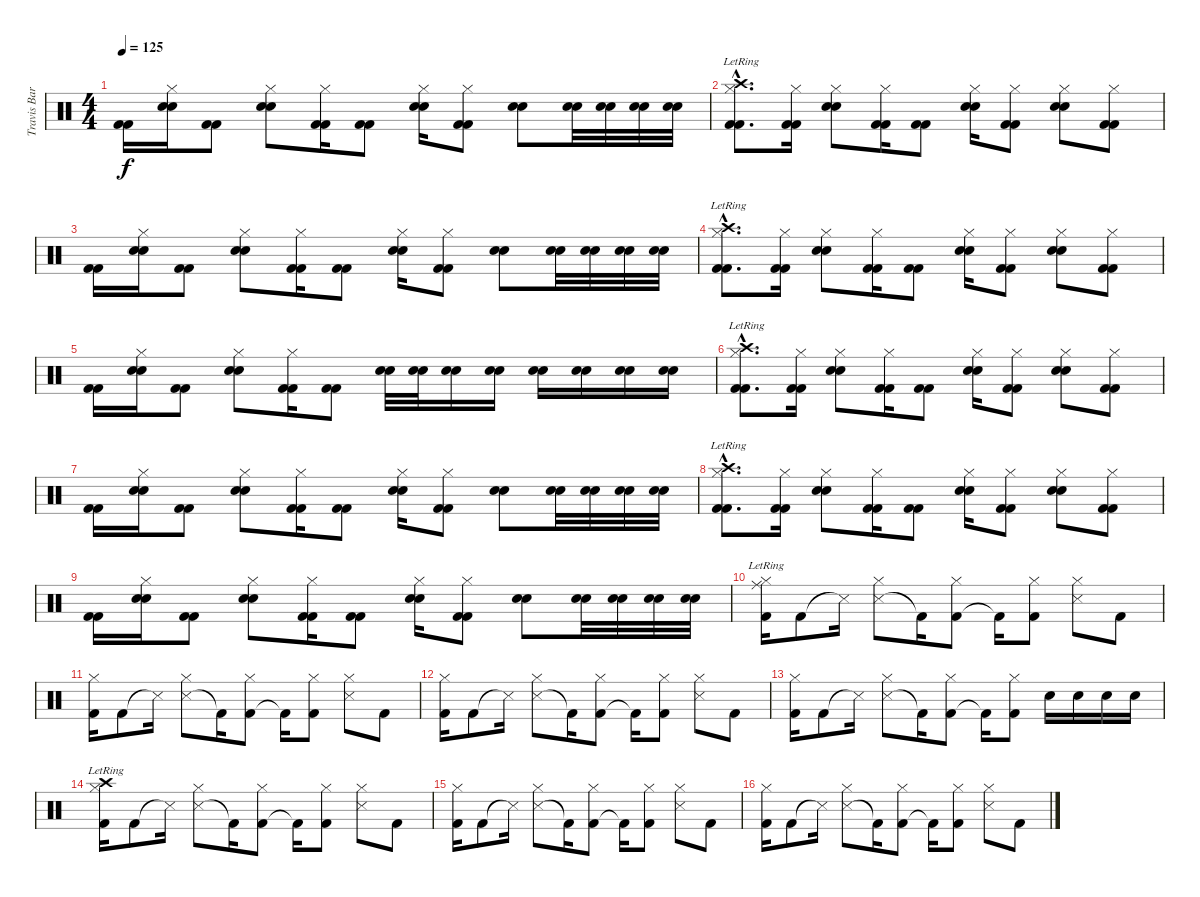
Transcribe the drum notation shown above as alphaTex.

\track ("Travis Barker - Drums" "Travis Bar") {instrument percussion}
\staff {score}
\articulation defaults
\ts (4 4)
\tempo 125
\clef neutral
\ks c
("Kick (hit) 2" "Kick (hit) 2").16{dy f} ("Snare (hit) 2" "Snare (hit) 2" "Hi-Hat (closed)").16 ("Kick (hit) 2" "Kick (hit) 2").8 ("Snare (hit) 2" "Snare (hit) 2" "Hi-Hat (closed)").8 ("Kick (hit) 2" "Kick (hit) 2" "Hi-Hat (closed)").16 ("Kick (hit) 2" "Kick (hit) 2").8 ("Snare (hit) 2" "Snare (hit) 2" "Hi-Hat (closed)").16 ("Kick (hit) 2" "Kick (hit) 2" "Hi-Hat (closed)").8 ("Snare (hit) 2" "Snare (hit) 2").8 ("Snare (hit) 2" "Snare (hit) 2").32 ("Snare (hit) 2" "Snare (hit) 2").32 ("Snare (hit) 2" "Snare (hit) 2").32 ("Snare (hit) 2" "Snare (hit) 2").32 |
("Kick (hit) 2"{hac} "Kick (hit) 2"{hac} "Hi-Hat (closed)"{hac} "Crash high (hit)"{hac lr}).8{d} ("Kick (hit) 2" "Kick (hit) 2" "Hi-Hat (closed)").16 ("Snare (hit) 2" "Snare (hit) 2" "Hi-Hat (closed)").8 ("Kick (hit) 2" "Kick (hit) 2" "Hi-Hat (closed)").16 ("Kick (hit) 2" "Kick (hit) 2").8 ("Snare (hit) 2" "Snare (hit) 2" "Hi-Hat (closed)").16 ("Kick (hit) 2" "Kick (hit) 2" "Hi-Hat (closed)").8 ("Snare (hit) 2" "Snare (hit) 2" "Hi-Hat (closed)").8 ("Kick (hit) 2" "Kick (hit) 2" "Hi-Hat (closed)").8 |
("Kick (hit) 2" "Kick (hit) 2").16 ("Snare (hit) 2" "Snare (hit) 2" "Hi-Hat (closed)").16 ("Kick (hit) 2" "Kick (hit) 2").8 ("Snare (hit) 2" "Snare (hit) 2" "Hi-Hat (closed)").8 ("Kick (hit) 2" "Kick (hit) 2" "Hi-Hat (closed)").16 ("Kick (hit) 2" "Kick (hit) 2").8 ("Snare (hit) 2" "Snare (hit) 2" "Hi-Hat (closed)").16 ("Kick (hit) 2" "Kick (hit) 2" "Hi-Hat (closed)").8 ("Snare (hit) 2" "Snare (hit) 2").8 ("Snare (hit) 2" "Snare (hit) 2").32 ("Snare (hit) 2" "Snare (hit) 2").32 ("Snare (hit) 2" "Snare (hit) 2").32 ("Snare (hit) 2" "Snare (hit) 2").32 |
("Kick (hit) 2"{hac} "Kick (hit) 2"{hac} "Hi-Hat (closed)"{hac} "Crash high (hit)"{hac lr}).8{d} ("Kick (hit) 2" "Kick (hit) 2" "Hi-Hat (closed)").16 ("Snare (hit) 2" "Snare (hit) 2" "Hi-Hat (closed)").8 ("Kick (hit) 2" "Kick (hit) 2" "Hi-Hat (closed)").16 ("Kick (hit) 2" "Kick (hit) 2").8 ("Snare (hit) 2" "Snare (hit) 2" "Hi-Hat (closed)").16 ("Kick (hit) 2" "Kick (hit) 2" "Hi-Hat (closed)").8 ("Snare (hit) 2" "Snare (hit) 2" "Hi-Hat (closed)").8 ("Kick (hit) 2" "Kick (hit) 2" "Hi-Hat (closed)").8 |
("Kick (hit) 2" "Kick (hit) 2").16 ("Snare (hit) 2" "Snare (hit) 2" "Hi-Hat (closed)").16 ("Kick (hit) 2" "Kick (hit) 2").8 ("Snare (hit) 2" "Snare (hit) 2" "Hi-Hat (closed)").8 ("Kick (hit) 2" "Kick (hit) 2" "Hi-Hat (closed)").16 ("Kick (hit) 2" "Kick (hit) 2").8 ("Snare (hit) 2" "Snare (hit) 2").32 ("Snare (hit) 2" "Snare (hit) 2").32 ("Snare (hit) 2" "Snare (hit) 2").16 ("Snare (hit) 2" "Snare (hit) 2").16 ("Snare (hit) 2" "Snare (hit) 2").16 ("Snare (hit) 2" "Snare (hit) 2").16 ("Snare (hit) 2" "Snare (hit) 2").16 ("Snare (hit) 2" "Snare (hit) 2").16 |
("Kick (hit) 2"{hac} "Kick (hit) 2"{hac} "Hi-Hat (closed)"{hac} "Crash high (hit)"{hac lr}).8{d} ("Kick (hit) 2" "Kick (hit) 2" "Hi-Hat (closed)").16 ("Snare (hit) 2" "Snare (hit) 2" "Hi-Hat (closed)").8 ("Kick (hit) 2" "Kick (hit) 2" "Hi-Hat (closed)").16 ("Kick (hit) 2" "Kick (hit) 2").8 ("Snare (hit) 2" "Snare (hit) 2" "Hi-Hat (closed)").16 ("Kick (hit) 2" "Kick (hit) 2" "Hi-Hat (closed)").8 ("Snare (hit) 2" "Snare (hit) 2" "Hi-Hat (closed)").8 ("Kick (hit) 2" "Kick (hit) 2" "Hi-Hat (closed)").8 |
("Kick (hit) 2" "Kick (hit) 2").16 ("Snare (hit) 2" "Snare (hit) 2" "Hi-Hat (closed)").16 ("Kick (hit) 2" "Kick (hit) 2").8 ("Snare (hit) 2" "Snare (hit) 2" "Hi-Hat (closed)").8 ("Kick (hit) 2" "Kick (hit) 2" "Hi-Hat (closed)").16 ("Kick (hit) 2" "Kick (hit) 2").8 ("Snare (hit) 2" "Snare (hit) 2" "Hi-Hat (closed)").16 ("Kick (hit) 2" "Kick (hit) 2" "Hi-Hat (closed)").8 ("Snare (hit) 2" "Snare (hit) 2").8 ("Snare (hit) 2" "Snare (hit) 2").32 ("Snare (hit) 2" "Snare (hit) 2").32 ("Snare (hit) 2" "Snare (hit) 2").32 ("Snare (hit) 2" "Snare (hit) 2").32 |
("Kick (hit) 2"{hac} "Kick (hit) 2"{hac} "Hi-Hat (closed)"{hac} "Crash high (hit)"{hac lr}).8{d} ("Kick (hit) 2" "Kick (hit) 2" "Hi-Hat (closed)").16 ("Snare (hit) 2" "Snare (hit) 2" "Hi-Hat (closed)").8 ("Kick (hit) 2" "Kick (hit) 2" "Hi-Hat (closed)").16 ("Kick (hit) 2" "Kick (hit) 2").8 ("Snare (hit) 2" "Snare (hit) 2" "Hi-Hat (closed)").16 ("Kick (hit) 2" "Kick (hit) 2" "Hi-Hat (closed)").8 ("Snare (hit) 2" "Snare (hit) 2" "Hi-Hat (closed)").8 ("Kick (hit) 2" "Kick (hit) 2" "Hi-Hat (closed)").8 |
("Kick (hit) 2" "Kick (hit) 2").16 ("Snare (hit) 2" "Snare (hit) 2" "Hi-Hat (closed)").16 ("Kick (hit) 2" "Kick (hit) 2").8 ("Snare (hit) 2" "Snare (hit) 2" "Hi-Hat (closed)").8 ("Kick (hit) 2" "Kick (hit) 2" "Hi-Hat (closed)").16 ("Kick (hit) 2" "Kick (hit) 2").8 ("Snare (hit) 2" "Snare (hit) 2" "Hi-Hat (closed)").16 ("Kick (hit) 2" "Kick (hit) 2" "Hi-Hat (closed)").8 ("Snare (hit) 2" "Snare (hit) 2").8 ("Snare (hit) 2" "Snare (hit) 2").32 ("Snare (hit) 2" "Snare (hit) 2").32 ("Snare (hit) 2" "Snare (hit) 2").32 ("Snare (hit) 2" "Snare (hit) 2").32 |
("Kick (hit) 2" "Hi-Hat (closed)" "Ride (middle)"{lr}).16 "Kick (hit) 2".8 "Snare (side stick) 3"{t}.16 ("Snare (side stick) 3" "Hi-Hat (closed)").8 "Kick (hit) 2"{t}.16 ("Kick (hit) 2" "Hi-Hat (closed)").8 "Kick (hit) 2"{t}.16 ("Kick (hit) 2" "Hi-Hat (closed)").8 ("Snare (side stick) 3" "Hi-Hat (closed)").8 "Kick (hit) 2".8 |
("Kick (hit) 2" "Hi-Hat (closed)").16 "Kick (hit) 2".8 "Snare (side stick) 3"{t}.16 ("Snare (side stick) 3" "Hi-Hat (closed)").8 "Kick (hit) 2"{t}.16 ("Kick (hit) 2" "Hi-Hat (closed)").8 "Kick (hit) 2"{t}.16 ("Kick (hit) 2" "Hi-Hat (closed)").8 ("Snare (side stick) 3" "Hi-Hat (closed)").8 "Kick (hit) 2".8 |
("Kick (hit) 2" "Hi-Hat (closed)").16 "Kick (hit) 2".8 "Snare (side stick) 3"{t}.16 ("Snare (side stick) 3" "Hi-Hat (closed)").8 "Kick (hit) 2"{t}.16 ("Kick (hit) 2" "Hi-Hat (closed)").8 "Kick (hit) 2"{t}.16 ("Kick (hit) 2" "Hi-Hat (closed)").8 ("Snare (side stick) 3" "Hi-Hat (closed)").8 "Kick (hit) 2".8 |
("Kick (hit) 2" "Hi-Hat (closed)").16 "Kick (hit) 2".8 "Snare (side stick) 3"{t}.16 ("Snare (side stick) 3" "Hi-Hat (closed)").8 "Kick (hit) 2"{t}.16 ("Kick (hit) 2" "Hi-Hat (closed)").8 "Kick (hit) 2"{t}.16 ("Kick (hit) 2" "Hi-Hat (closed)").8 "Snare (hit) 2".16 "Snare (hit) 2".16 "Snare (hit) 2".16 "Snare (hit) 2".16 |
("Kick (hit) 2" "Hi-Hat (closed)" "Crash high (hit)"{lr}).16 "Kick (hit) 2".8 "Snare (side stick) 3"{t}.16 ("Snare (side stick) 3" "Hi-Hat (closed)").8 "Kick (hit) 2"{t}.16 ("Kick (hit) 2" "Hi-Hat (closed)").8 "Kick (hit) 2"{t}.16 ("Kick (hit) 2" "Hi-Hat (closed)").8 ("Snare (side stick) 3" "Hi-Hat (closed)").8 "Kick (hit) 2".8 |
("Kick (hit) 2" "Hi-Hat (closed)").16 "Kick (hit) 2".8 "Snare (side stick) 3"{t}.16 ("Snare (side stick) 3" "Hi-Hat (closed)").8 "Kick (hit) 2"{t}.16 ("Kick (hit) 2" "Hi-Hat (closed)").8 "Kick (hit) 2"{t}.16 ("Kick (hit) 2" "Hi-Hat (closed)").8 ("Snare (side stick) 3" "Hi-Hat (closed)").8 "Kick (hit) 2".8 |
("Kick (hit) 2" "Hi-Hat (closed)").16 "Kick (hit) 2".8 "Snare (side stick) 3"{t}.16 ("Snare (side stick) 3" "Hi-Hat (closed)").8 "Kick (hit) 2"{t}.16 ("Kick (hit) 2" "Hi-Hat (closed)").8 "Kick (hit) 2"{t}.16 ("Kick (hit) 2" "Hi-Hat (closed)").8 ("Snare (side stick) 3" "Hi-Hat (closed)").8 "Kick (hit) 2".8
